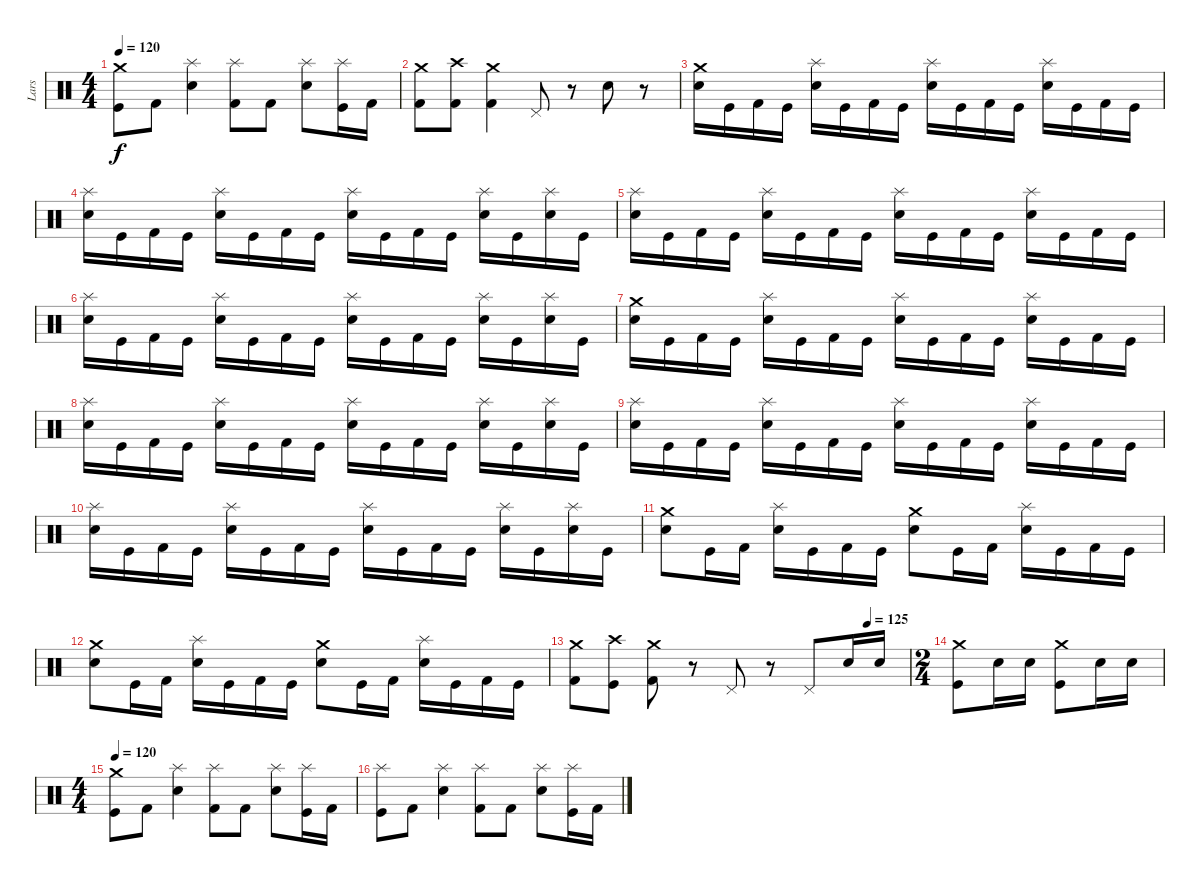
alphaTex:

\track ("Lars" "Lars") {instrument percussion}
\staff {score}
\articulation defaults
\ts (4 4)
\tempo 120
\clef neutral
\ks c
("Crash medium (hit)" "Kick (hit)").8{dy f} "Kick (hit) 2".8 ("Splash (hit)" "Snare (hit) 2").4 ("Splash (hit)" "Kick (hit) 2").8 "Kick (hit) 2".8 ("Splash (hit)" "Snare (hit) 2").8 ("Splash (hit)" "Kick (hit)").16 "Kick (hit) 2".16 |
("Crash medium (hit)" "Kick (hit) 2").8 ("Crash high (hit)" "Kick (hit) 2").8 ("Crash medium (hit)" "Kick (hit) 2").4 "Pedal Hi-Hat (hit)".8 r.8 "Snare (hit) 2".8 r.8 |
("Crash medium (hit)" "Snare (hit) 2").16 "Kick (hit)".16 "Kick (hit) 2".16 "Kick (hit)".16 ("Splash (hit)" "Snare (hit) 2").16 "Kick (hit)".16 "Kick (hit) 2".16 "Kick (hit)".16 ("Splash (hit)" "Snare (hit) 2").16 "Kick (hit)".16 "Kick (hit) 2".16 "Kick (hit)".16 ("Splash (hit)" "Snare (hit) 2").16 "Kick (hit)".16 "Kick (hit) 2".16 "Kick (hit)".16 |
("Splash (hit)" "Snare (hit) 2").16 "Kick (hit)".16 "Kick (hit) 2".16 "Kick (hit)".16 ("Splash (hit)" "Snare (hit) 2").16 "Kick (hit)".16 "Kick (hit) 2".16 "Kick (hit)".16 ("Splash (hit)" "Snare (hit) 2").16 "Kick (hit)".16 "Kick (hit) 2".16 "Kick (hit)".16 ("Splash (hit)" "Snare (hit) 2").16 "Kick (hit)".16 ("Splash (hit)" "Snare (hit) 2").16 "Kick (hit)".16 |
("Splash (hit)" "Snare (hit) 2").16 "Kick (hit)".16 "Kick (hit) 2".16 "Kick (hit)".16 ("Splash (hit)" "Snare (hit) 2").16 "Kick (hit)".16 "Kick (hit) 2".16 "Kick (hit)".16 ("Splash (hit)" "Snare (hit) 2").16 "Kick (hit)".16 "Kick (hit) 2".16 "Kick (hit)".16 ("Splash (hit)" "Snare (hit) 2").16 "Kick (hit)".16 "Kick (hit) 2".16 "Kick (hit)".16 |
("Splash (hit)" "Snare (hit) 2").16 "Kick (hit)".16 "Kick (hit) 2".16 "Kick (hit)".16 ("Splash (hit)" "Snare (hit) 2").16 "Kick (hit)".16 "Kick (hit) 2".16 "Kick (hit)".16 ("Splash (hit)" "Snare (hit) 2").16 "Kick (hit)".16 "Kick (hit) 2".16 "Kick (hit)".16 ("Splash (hit)" "Snare (hit) 2").16 "Kick (hit)".16 ("Splash (hit)" "Snare (hit) 2").16 "Kick (hit)".16 |
("Crash medium (hit)" "Snare (hit) 2").16 "Kick (hit)".16 "Kick (hit) 2".16 "Kick (hit)".16 ("Splash (hit)" "Snare (hit) 2").16 "Kick (hit)".16 "Kick (hit) 2".16 "Kick (hit)".16 ("Splash (hit)" "Snare (hit) 2").16 "Kick (hit)".16 "Kick (hit) 2".16 "Kick (hit)".16 ("Splash (hit)" "Snare (hit) 2").16 "Kick (hit)".16 "Kick (hit) 2".16 "Kick (hit)".16 |
("Splash (hit)" "Snare (hit) 2").16 "Kick (hit)".16 "Kick (hit) 2".16 "Kick (hit)".16 ("Splash (hit)" "Snare (hit) 2").16 "Kick (hit)".16 "Kick (hit) 2".16 "Kick (hit)".16 ("Splash (hit)" "Snare (hit) 2").16 "Kick (hit)".16 "Kick (hit) 2".16 "Kick (hit)".16 ("Splash (hit)" "Snare (hit) 2").16 "Kick (hit)".16 ("Splash (hit)" "Snare (hit) 2").16 "Kick (hit)".16 |
("Splash (hit)" "Snare (hit) 2").16 "Kick (hit)".16 "Kick (hit) 2".16 "Kick (hit)".16 ("Splash (hit)" "Snare (hit) 2").16 "Kick (hit)".16 "Kick (hit) 2".16 "Kick (hit)".16 ("Splash (hit)" "Snare (hit) 2").16 "Kick (hit)".16 "Kick (hit) 2".16 "Kick (hit)".16 ("Splash (hit)" "Snare (hit) 2").16 "Kick (hit)".16 "Kick (hit) 2".16 "Kick (hit)".16 |
("Splash (hit)" "Snare (hit) 2").16 "Kick (hit)".16 "Kick (hit) 2".16 "Kick (hit)".16 ("Splash (hit)" "Snare (hit) 2").16 "Kick (hit)".16 "Kick (hit) 2".16 "Kick (hit)".16 ("Splash (hit)" "Snare (hit) 2").16 "Kick (hit)".16 "Kick (hit) 2".16 "Kick (hit)".16 ("Splash (hit)" "Snare (hit) 2").16 "Kick (hit)".16 ("Splash (hit)" "Snare (hit) 2").16 "Kick (hit)".16 |
("Crash medium (hit)" "Snare (hit) 2").8 "Kick (hit)".16 "Kick (hit) 2".16 ("Splash (hit)" "Snare (hit) 2").16 "Kick (hit)".16 "Kick (hit) 2".16 "Kick (hit)".16 ("Crash medium (hit)" "Snare (hit) 2").8 "Kick (hit)".16 "Kick (hit) 2".16 ("Splash (hit)" "Snare (hit) 2").16 "Kick (hit)".16 "Kick (hit) 2".16 "Kick (hit)".16 |
("Crash medium (hit)" "Snare (hit) 2").8 "Kick (hit)".16 "Kick (hit) 2".16 ("Splash (hit)" "Snare (hit) 2").16 "Kick (hit)".16 "Kick (hit) 2".16 "Kick (hit)".16 ("Crash medium (hit)" "Snare (hit) 2").8 "Kick (hit)".16 "Kick (hit) 2".16 ("Splash (hit)" "Snare (hit) 2").16 "Kick (hit)".16 "Kick (hit) 2".16 "Kick (hit)".16 |
\tempo (125 0.875)
("Crash medium (hit)" "Kick (hit) 2").8 ("Crash high (hit)" "Kick (hit)").8 ("Crash medium (hit)" "Kick (hit) 2").8 r.8 "Pedal Hi-Hat (hit)".8 r.8 "Pedal Hi-Hat (hit)".8 "Snare (hit) 2".16 "Snare (hit) 2".16 |
\ts (2 4)
("Crash medium (hit)" "Kick (hit)").8 "Snare (hit) 2".16 "Snare (hit) 2".16 ("Crash medium (hit)" "Kick (hit)").8 "Snare (hit) 2".16 "Snare (hit) 2".16 |
\ts (4 4)
\tempo 120
("Crash medium (hit)" "Kick (hit)").8 "Kick (hit) 2".8 ("Splash (hit)" "Snare (hit) 2").4 ("Splash (hit)" "Kick (hit) 2").8 "Kick (hit) 2".8 ("Splash (hit)" "Snare (hit) 2").8 ("Splash (hit)" "Kick (hit)").16 "Kick (hit) 2".16 |
("Splash (hit)" "Kick (hit)").8 "Kick (hit) 2".8 ("Splash (hit)" "Snare (hit) 2").4 ("Splash (hit)" "Kick (hit) 2").8 "Kick (hit) 2".8 ("Splash (hit)" "Snare (hit) 2").8 ("Splash (hit)" "Kick (hit)").16 "Kick (hit) 2".16
